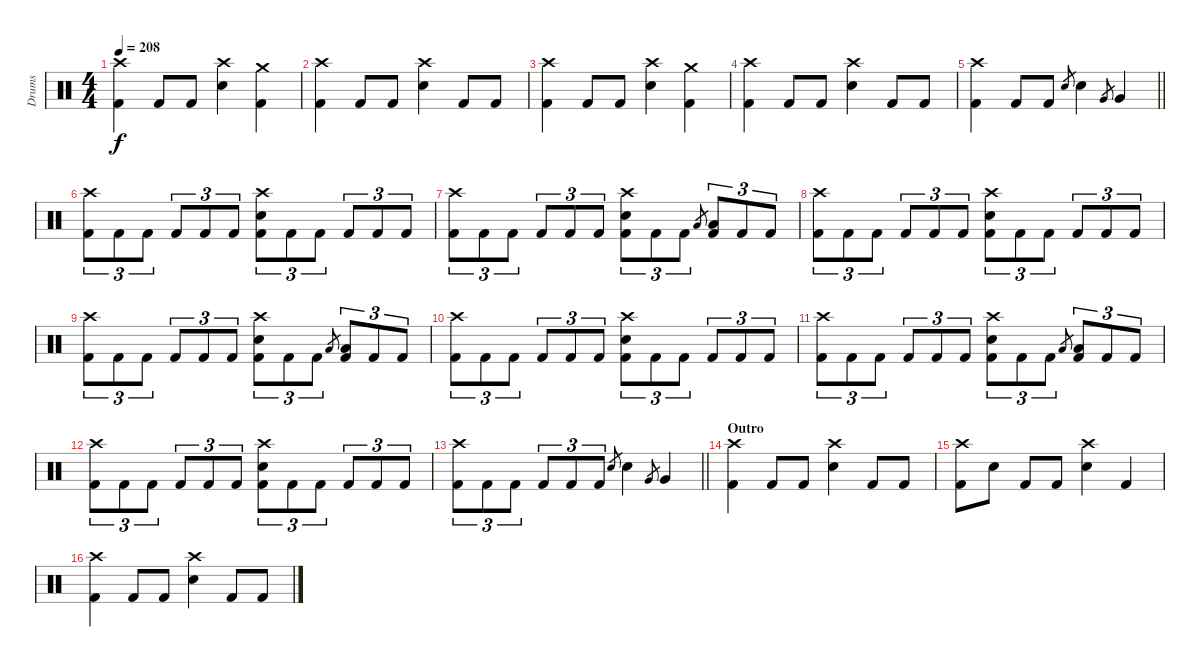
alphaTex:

\track ("Drums" "Drums") {instrument percussion}
\staff {score}
\articulation defaults
\ts (4 4)
\tempo 208
\clef neutral
\ks c
("Crash high (hit)" "Kick (hit) 2").4{dy f} "Kick (hit) 2".8 "Kick (hit) 2".8 ("Crash high (hit)" "Electric Snare (hit)").4 ("Crash medium (hit)" "Kick (hit) 2").4 |
("Crash high (hit)" "Kick (hit) 2").4 "Kick (hit) 2".8 "Kick (hit) 2".8 ("Crash high (hit)" "Electric Snare (hit)").4 "Kick (hit) 2".8 "Kick (hit) 2".8 |
("Crash high (hit)" "Kick (hit) 2").4 "Kick (hit) 2".8 "Kick (hit) 2".8 ("Crash high (hit)" "Electric Snare (hit)").4 ("Crash medium (hit)" "Kick (hit) 2").4 |
("Crash high (hit)" "Kick (hit) 2").4 "Kick (hit) 2".8 "Kick (hit) 2".8 ("Crash high (hit)" "Electric Snare (hit)").4 "Kick (hit) 2".8 "Kick (hit) 2".8 |
\barLineRight lightlight
("Crash high (hit)" "Kick (hit) 2").4 "Kick (hit) 2".8 "Kick (hit) 2".8 "Electric Snare (hit)".8{gr} "Electric Snare (hit)".4 "Very Low Tom (hit)".8{gr} "Very Low Tom (hit)".4 |
("Crash high (hit)" "Kick (hit) 2").8{tu (3 2)} "Kick (hit) 2".8{tu (3 2)} "Kick (hit) 2".8{tu (3 2)} "Kick (hit) 2".8{tu (3 2)} "Kick (hit) 2".8{tu (3 2)} "Kick (hit) 2".8{tu (3 2)} ("Crash high (hit)" "Electric Snare (hit)" "Kick (hit) 2").8{tu (3 2)} "Kick (hit) 2".8{tu (3 2)} "Kick (hit) 2".8{tu (3 2)} "Kick (hit) 2".8{tu (3 2)} "Kick (hit) 2".8{tu (3 2)} "Kick (hit) 2".8{tu (3 2)} |
("Crash high (hit)" "Kick (hit) 2").8{tu (3 2)} "Kick (hit) 2".8{tu (3 2)} "Kick (hit) 2".8{tu (3 2)} "Kick (hit) 2".8{tu (3 2)} "Kick (hit) 2".8{tu (3 2)} "Kick (hit) 2".8{tu (3 2)} ("Crash high (hit)" "Electric Snare (hit)" "Kick (hit) 2").8{tu (3 2)} "Kick (hit) 2".8{tu (3 2)} "Kick (hit) 2".8{tu (3 2)} "Low Tom (hit)".8{gr} ("Low Tom (hit)" "Kick (hit) 2").8{tu (3 2)} "Kick (hit) 2".8{tu (3 2)} "Kick (hit) 2".8{tu (3 2)} |
("Crash high (hit)" "Kick (hit) 2").8{tu (3 2)} "Kick (hit) 2".8{tu (3 2)} "Kick (hit) 2".8{tu (3 2)} "Kick (hit) 2".8{tu (3 2)} "Kick (hit) 2".8{tu (3 2)} "Kick (hit) 2".8{tu (3 2)} ("Crash high (hit)" "Electric Snare (hit)" "Kick (hit) 2").8{tu (3 2)} "Kick (hit) 2".8{tu (3 2)} "Kick (hit) 2".8{tu (3 2)} "Kick (hit) 2".8{tu (3 2)} "Kick (hit) 2".8{tu (3 2)} "Kick (hit) 2".8{tu (3 2)} |
("Crash high (hit)" "Kick (hit) 2").8{tu (3 2)} "Kick (hit) 2".8{tu (3 2)} "Kick (hit) 2".8{tu (3 2)} "Kick (hit) 2".8{tu (3 2)} "Kick (hit) 2".8{tu (3 2)} "Kick (hit) 2".8{tu (3 2)} ("Crash high (hit)" "Electric Snare (hit)" "Kick (hit) 2").8{tu (3 2)} "Kick (hit) 2".8{tu (3 2)} "Kick (hit) 2".8{tu (3 2)} "Low Tom (hit)".8{gr} ("Low Tom (hit)" "Kick (hit) 2").8{tu (3 2)} "Kick (hit) 2".8{tu (3 2)} "Kick (hit) 2".8{tu (3 2)} |
("Crash high (hit)" "Kick (hit) 2").8{tu (3 2)} "Kick (hit) 2".8{tu (3 2)} "Kick (hit) 2".8{tu (3 2)} "Kick (hit) 2".8{tu (3 2)} "Kick (hit) 2".8{tu (3 2)} "Kick (hit) 2".8{tu (3 2)} ("Crash high (hit)" "Electric Snare (hit)" "Kick (hit) 2").8{tu (3 2)} "Kick (hit) 2".8{tu (3 2)} "Kick (hit) 2".8{tu (3 2)} "Kick (hit) 2".8{tu (3 2)} "Kick (hit) 2".8{tu (3 2)} "Kick (hit) 2".8{tu (3 2)} |
("Crash high (hit)" "Kick (hit) 2").8{tu (3 2)} "Kick (hit) 2".8{tu (3 2)} "Kick (hit) 2".8{tu (3 2)} "Kick (hit) 2".8{tu (3 2)} "Kick (hit) 2".8{tu (3 2)} "Kick (hit) 2".8{tu (3 2)} ("Crash high (hit)" "Electric Snare (hit)" "Kick (hit) 2").8{tu (3 2)} "Kick (hit) 2".8{tu (3 2)} "Kick (hit) 2".8{tu (3 2)} "Low Tom (hit)".8{gr} ("Low Tom (hit)" "Kick (hit) 2").8{tu (3 2)} "Kick (hit) 2".8{tu (3 2)} "Kick (hit) 2".8{tu (3 2)} |
("Crash high (hit)" "Kick (hit) 2").8{tu (3 2)} "Kick (hit) 2".8{tu (3 2)} "Kick (hit) 2".8{tu (3 2)} "Kick (hit) 2".8{tu (3 2)} "Kick (hit) 2".8{tu (3 2)} "Kick (hit) 2".8{tu (3 2)} ("Crash high (hit)" "Electric Snare (hit)" "Kick (hit) 2").8{tu (3 2)} "Kick (hit) 2".8{tu (3 2)} "Kick (hit) 2".8{tu (3 2)} "Kick (hit) 2".8{tu (3 2)} "Kick (hit) 2".8{tu (3 2)} "Kick (hit) 2".8{tu (3 2)} |
\barLineRight lightlight
("Crash high (hit)" "Kick (hit) 2").8{tu (3 2)} "Kick (hit) 2".8{tu (3 2)} "Kick (hit) 2".8{tu (3 2)} "Kick (hit) 2".8{tu (3 2)} "Kick (hit) 2".8{tu (3 2)} "Kick (hit) 2".8{tu (3 2)} "Electric Snare (hit)".8{gr} "Electric Snare (hit)".4 "Very Low Tom (hit)".8{gr} "Very Low Tom (hit)".4 |
\section ("" "Outro")
("Crash high (hit)" "Kick (hit) 2").4 "Kick (hit) 2".8 "Kick (hit) 2".8 ("Crash high (hit)" "Electric Snare (hit)").4 "Kick (hit) 2".8 "Kick (hit) 2".8 |
("Crash high (hit)" "Kick (hit) 2").8 "Electric Snare (hit)".8 "Kick (hit) 2".8 "Kick (hit) 2".8 ("Crash high (hit)" "Electric Snare (hit)").4 "Kick (hit) 2".4 |
("Crash high (hit)" "Kick (hit) 2").4 "Kick (hit) 2".8 "Kick (hit) 2".8 ("Crash high (hit)" "Electric Snare (hit)").4 "Kick (hit) 2".8 "Kick (hit) 2".8
